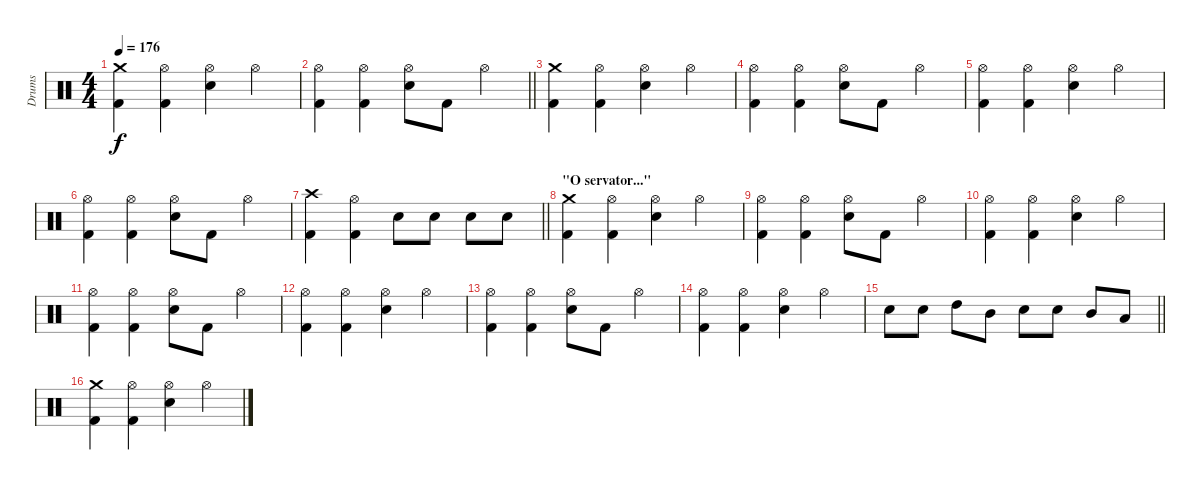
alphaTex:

\track ("Drums" "Drums") {instrument percussion}
\staff {score}
\articulation defaults
\ts (4 4)
\tempo 176
\clef neutral
\ks c
("Crash medium (hit)" "Kick (hit) 2").4{dy f} ("Hi-Hat (open)" "Kick (hit) 2").4 ("Hi-Hat (open)" "Snare (hit) 2").4 "Hi-Hat (open)".4 |
\barLineRight lightlight
("Hi-Hat (open)" "Kick (hit) 2").4 ("Hi-Hat (open)" "Kick (hit) 2").4 ("Hi-Hat (open)" "Snare (hit) 2").8 "Kick (hit) 2".8 "Hi-Hat (open)".4 |
\section ("" "")
("Crash medium (hit)" "Kick (hit) 2").4 ("Hi-Hat (open)" "Kick (hit) 2").4 ("Hi-Hat (open)" "Snare (hit) 2").4 "Hi-Hat (open)".4 |
("Hi-Hat (open)" "Kick (hit) 2").4 ("Hi-Hat (open)" "Kick (hit) 2").4 ("Hi-Hat (open)" "Snare (hit) 2").8 "Kick (hit) 2".8 "Hi-Hat (open)".4 |
("Hi-Hat (open)" "Kick (hit) 2").4 ("Hi-Hat (open)" "Kick (hit) 2").4 ("Hi-Hat (open)" "Snare (hit) 2").4 "Hi-Hat (open)".4 |
("Hi-Hat (open)" "Kick (hit) 2").4 ("Hi-Hat (open)" "Kick (hit) 2").4 ("Hi-Hat (open)" "Snare (hit) 2").8 "Kick (hit) 2".8 "Hi-Hat (open)".4 |
\barLineRight lightlight
("Crash high (hit)" "Kick (hit) 2").4 ("Hi-Hat (open)" "Kick (hit) 2").4 "Snare (hit) 2".8 "Snare (hit) 2".8 "Snare (hit) 2".8 "Snare (hit) 2".8 |
\section ("" "\"O servator...\"")
("Crash medium (hit)" "Kick (hit) 2").4 ("Hi-Hat (open)" "Kick (hit) 2").4 ("Hi-Hat (open)" "Snare (hit) 2").4 "Hi-Hat (open)".4 |
("Hi-Hat (open)" "Kick (hit) 2").4 ("Hi-Hat (open)" "Kick (hit) 2").4 ("Hi-Hat (open)" "Snare (hit) 2").8 "Kick (hit) 2".8 "Hi-Hat (open)".4 |
("Hi-Hat (open)" "Kick (hit) 2").4 ("Hi-Hat (open)" "Kick (hit) 2").4 ("Hi-Hat (open)" "Snare (hit) 2").4 "Hi-Hat (open)".4 |
("Hi-Hat (open)" "Kick (hit) 2").4 ("Hi-Hat (open)" "Kick (hit) 2").4 ("Hi-Hat (open)" "Snare (hit) 2").8 "Kick (hit) 2".8 "Hi-Hat (open)".4 |
("Hi-Hat (open)" "Kick (hit) 2").4 ("Hi-Hat (open)" "Kick (hit) 2").4 ("Hi-Hat (open)" "Snare (hit) 2").4 "Hi-Hat (open)".4 |
("Hi-Hat (open)" "Kick (hit) 2").4 ("Hi-Hat (open)" "Kick (hit) 2").4 ("Hi-Hat (open)" "Snare (hit) 2").8 "Kick (hit) 2".8 "Hi-Hat (open)".4 |
("Hi-Hat (open)" "Kick (hit) 2").4 ("Hi-Hat (open)" "Kick (hit) 2").4 ("Hi-Hat (open)" "Snare (hit) 2").4 "Hi-Hat (open)".4 |
\barLineRight lightlight "Snare (hit) 2".8 "Snare (hit) 2".8 "High Tom (hit)".8 "Mid Tom (hit)".8 "Snare (hit) 2".8 "Snare (hit) 2".8 "Mid Tom (hit)".8 "Low Tom (hit)".8
|
("Crash medium (hit)" "Kick (hit) 2").4 ("Hi-Hat (open)" "Kick (hit) 2").4 ("Hi-Hat (open)" "Snare (hit) 2").4 "Hi-Hat (open)".4
